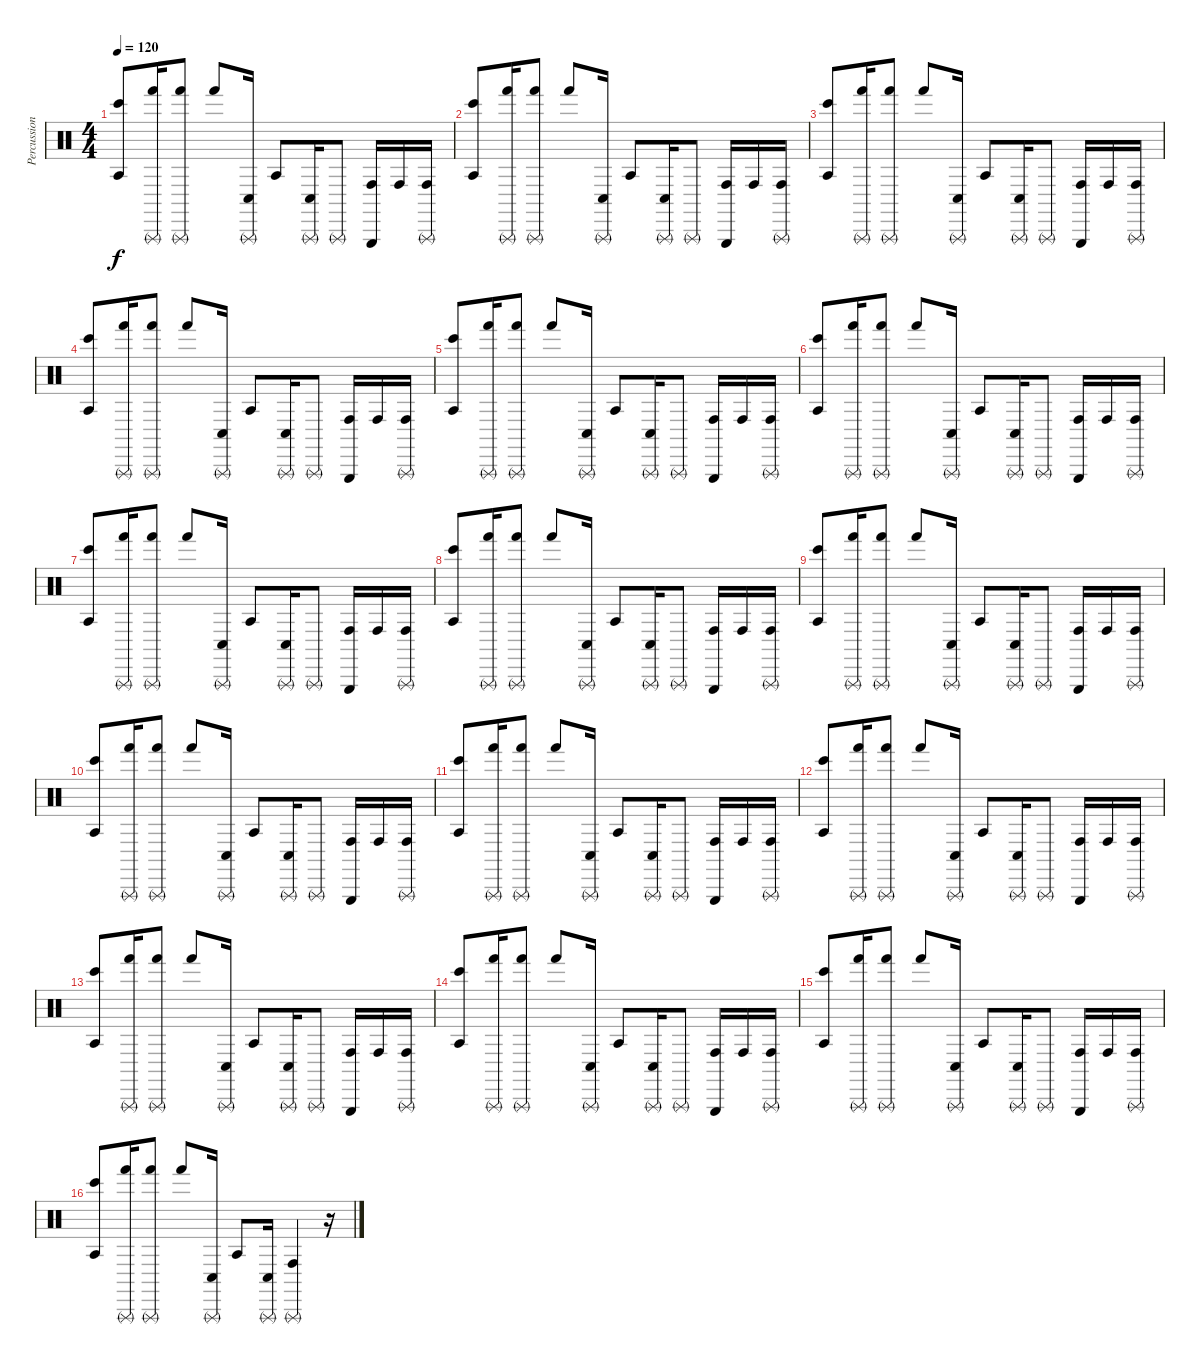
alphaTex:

\track ("Percussion" "Percussion") {instrument percussion}
\staff {score}
\articulation defaults
\ts (4 4)
\tempo 120
\clef neutral
\ks c
("Agogo tow (hit)" "Bongo High (hit)").8{dy f} ("Triangle (rnute)" "Hand (hit)").16 ("Triangle (rnute)" "Hand (hit)").8 "Hand (hit)".8 ("Triangle (rnute)" "Conga low (hit)").16 "Agogo tow (hit)".8 ("Triangle (rnute)" "Conga low (hit)").16 "Triangle (rnute)".8 ("Triangle (hit)" "Conga high (hit)").16 "Conga high (hit)".16 ("Triangle (rnute)" "Conga high (hit)").16 |
("Agogo tow (hit)" "Bongo High (hit)").8 ("Triangle (rnute)" "Hand (hit)").16 ("Triangle (rnute)" "Hand (hit)").8 "Hand (hit)".8 ("Triangle (rnute)" "Conga low (hit)").16 "Agogo tow (hit)".8 ("Triangle (rnute)" "Conga low (hit)").16 "Triangle (rnute)".8 ("Triangle (hit)" "Conga high (hit)").16 "Conga high (hit)".16 ("Triangle (rnute)" "Conga high (hit)").16 |
("Agogo tow (hit)" "Bongo High (hit)").8 ("Triangle (rnute)" "Hand (hit)").16 ("Triangle (rnute)" "Hand (hit)").8 "Hand (hit)".8 ("Triangle (rnute)" "Conga low (hit)").16 "Agogo tow (hit)".8 ("Triangle (rnute)" "Conga low (hit)").16 "Triangle (rnute)".8 ("Triangle (hit)" "Conga high (hit)").16 "Conga high (hit)".16 ("Triangle (rnute)" "Conga high (hit)").16 |
("Agogo tow (hit)" "Bongo High (hit)").8 ("Triangle (rnute)" "Hand (hit)").16 ("Triangle (rnute)" "Hand (hit)").8 "Hand (hit)".8 ("Triangle (rnute)" "Conga low (hit)").16 "Agogo tow (hit)".8 ("Triangle (rnute)" "Conga low (hit)").16 "Triangle (rnute)".8 ("Triangle (hit)" "Conga high (hit)").16 "Conga high (hit)".16 ("Triangle (rnute)" "Conga high (hit)").16 |
("Agogo tow (hit)" "Bongo High (hit)").8 ("Triangle (rnute)" "Hand (hit)").16 ("Triangle (rnute)" "Hand (hit)").8 "Hand (hit)".8 ("Triangle (rnute)" "Conga low (hit)").16 "Agogo tow (hit)".8 ("Triangle (rnute)" "Conga low (hit)").16 "Triangle (rnute)".8 ("Triangle (hit)" "Conga high (hit)").16 "Conga high (hit)".16 ("Triangle (rnute)" "Conga high (hit)").16 |
("Agogo tow (hit)" "Bongo High (hit)").8 ("Triangle (rnute)" "Hand (hit)").16 ("Triangle (rnute)" "Hand (hit)").8 "Hand (hit)".8 ("Triangle (rnute)" "Conga low (hit)").16 "Agogo tow (hit)".8 ("Triangle (rnute)" "Conga low (hit)").16 "Triangle (rnute)".8 ("Triangle (hit)" "Conga high (hit)").16 "Conga high (hit)".16 ("Triangle (rnute)" "Conga high (hit)").16 |
("Agogo tow (hit)" "Bongo High (hit)").8 ("Triangle (rnute)" "Hand (hit)").16 ("Triangle (rnute)" "Hand (hit)").8 "Hand (hit)".8 ("Triangle (rnute)" "Conga low (hit)").16 "Agogo tow (hit)".8 ("Triangle (rnute)" "Conga low (hit)").16 "Triangle (rnute)".8 ("Triangle (hit)" "Conga high (hit)").16 "Conga high (hit)".16 ("Triangle (rnute)" "Conga high (hit)").16 |
("Agogo tow (hit)" "Bongo High (hit)").8 ("Triangle (rnute)" "Hand (hit)").16 ("Triangle (rnute)" "Hand (hit)").8 "Hand (hit)".8 ("Triangle (rnute)" "Conga low (hit)").16 "Agogo tow (hit)".8 ("Triangle (rnute)" "Conga low (hit)").16 "Triangle (rnute)".8 ("Triangle (hit)" "Conga high (hit)").16 "Conga high (hit)".16 ("Triangle (rnute)" "Conga high (hit)").16 |
("Agogo tow (hit)" "Bongo High (hit)").8 ("Triangle (rnute)" "Hand (hit)").16 ("Triangle (rnute)" "Hand (hit)").8 "Hand (hit)".8 ("Triangle (rnute)" "Conga low (hit)").16 "Agogo tow (hit)".8 ("Triangle (rnute)" "Conga low (hit)").16 "Triangle (rnute)".8 ("Triangle (hit)" "Conga high (hit)").16 "Conga high (hit)".16 ("Triangle (rnute)" "Conga high (hit)").16 |
("Agogo tow (hit)" "Bongo High (hit)").8 ("Triangle (rnute)" "Hand (hit)").16 ("Triangle (rnute)" "Hand (hit)").8 "Hand (hit)".8 ("Triangle (rnute)" "Conga low (hit)").16 "Agogo tow (hit)".8 ("Triangle (rnute)" "Conga low (hit)").16 "Triangle (rnute)".8 ("Triangle (hit)" "Conga high (hit)").16 "Conga high (hit)".16 ("Triangle (rnute)" "Conga high (hit)").16 |
("Agogo tow (hit)" "Bongo High (hit)").8 ("Triangle (rnute)" "Hand (hit)").16 ("Triangle (rnute)" "Hand (hit)").8 "Hand (hit)".8 ("Triangle (rnute)" "Conga low (hit)").16 "Agogo tow (hit)".8 ("Triangle (rnute)" "Conga low (hit)").16 "Triangle (rnute)".8 ("Triangle (hit)" "Conga high (hit)").16 "Conga high (hit)".16 ("Triangle (rnute)" "Conga high (hit)").16 |
("Agogo tow (hit)" "Bongo High (hit)").8 ("Triangle (rnute)" "Hand (hit)").16 ("Triangle (rnute)" "Hand (hit)").8 "Hand (hit)".8 ("Triangle (rnute)" "Conga low (hit)").16 "Agogo tow (hit)".8 ("Triangle (rnute)" "Conga low (hit)").16 "Triangle (rnute)".8 ("Triangle (hit)" "Conga high (hit)").16 "Conga high (hit)".16 ("Triangle (rnute)" "Conga high (hit)").16 |
("Agogo tow (hit)" "Bongo High (hit)").8 ("Triangle (rnute)" "Hand (hit)").16 ("Triangle (rnute)" "Hand (hit)").8 "Hand (hit)".8 ("Triangle (rnute)" "Conga low (hit)").16 "Agogo tow (hit)".8 ("Triangle (rnute)" "Conga low (hit)").16 "Triangle (rnute)".8 ("Triangle (hit)" "Conga high (hit)").16 "Conga high (hit)".16 ("Triangle (rnute)" "Conga high (hit)").16 |
("Agogo tow (hit)" "Bongo High (hit)").8 ("Triangle (rnute)" "Hand (hit)").16 ("Triangle (rnute)" "Hand (hit)").8 "Hand (hit)".8 ("Triangle (rnute)" "Conga low (hit)").16 "Agogo tow (hit)".8 ("Triangle (rnute)" "Conga low (hit)").16 "Triangle (rnute)".8 ("Triangle (hit)" "Conga high (hit)").16 "Conga high (hit)".16 ("Triangle (rnute)" "Conga high (hit)").16 |
("Agogo tow (hit)" "Bongo High (hit)").8 ("Triangle (rnute)" "Hand (hit)").16 ("Triangle (rnute)" "Hand (hit)").8 "Hand (hit)".8 ("Triangle (rnute)" "Conga low (hit)").16 "Agogo tow (hit)".8 ("Triangle (rnute)" "Conga low (hit)").16 "Triangle (rnute)".8 ("Triangle (hit)" "Conga high (hit)").16 "Conga high (hit)".16 ("Triangle (rnute)" "Conga high (hit)").16 |
("Agogo tow (hit)" "Bongo High (hit)").8 ("Triangle (rnute)" "Hand (hit)").16 ("Triangle (rnute)" "Hand (hit)").8 "Hand (hit)".8 ("Triangle (rnute)" "Conga low (hit)").16 "Agogo tow (hit)".8 ("Triangle (rnute)" "Conga low (hit)").16 ("Triangle (rnute)" "Conga high (hit)").4 r.16
